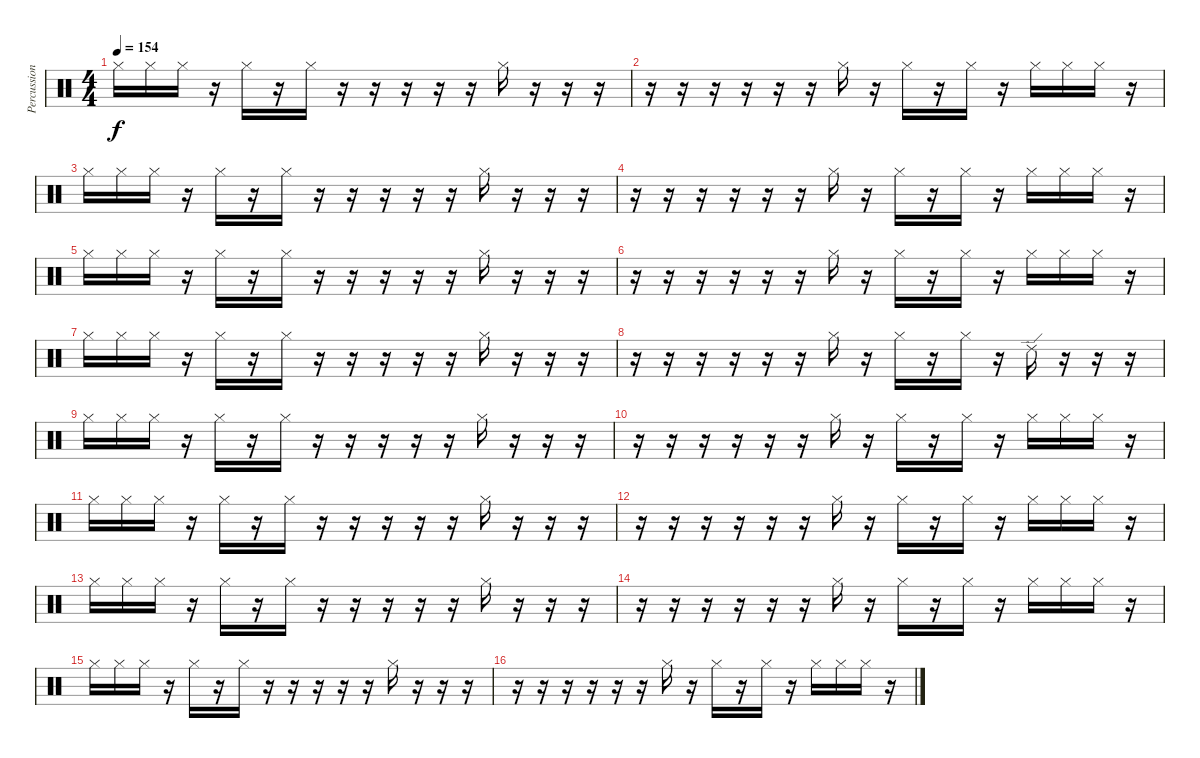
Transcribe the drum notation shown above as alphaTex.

\track ("Percussion" "Percussion") {instrument percussion}
\staff {score}
\articulation defaults
\ts (4 4)
\tempo 154
\clef neutral
\ks c "Hi-Hat (closed)".16{dy f} "Hi-Hat (closed)".16 "Hi-Hat (closed)".16
r.16 "Hi-Hat (closed)".16 r.16 "Hi-Hat (closed)".16 r.16 r.16 r.16 r.16 r.16 "Hi-Hat (closed)".16 r.16 r.16 r.16 |
r.16 r.16 r.16 r.16 r.16 r.16 "Hi-Hat (closed)".16 r.16 "Hi-Hat (closed)".16 r.16 "Hi-Hat (closed)".16 r.16 "Hi-Hat (closed)".16 "Hi-Hat (closed)".16 "Hi-Hat (closed)".16 r.16 |
"Hi-Hat (closed)".16 "Hi-Hat (closed)".16 "Hi-Hat (closed)".16 r.16 "Hi-Hat (closed)".16 r.16 "Hi-Hat (closed)".16 r.16 r.16 r.16 r.16 r.16 "Hi-Hat (closed)".16 r.16 r.16 r.16 |
r.16 r.16 r.16 r.16 r.16 r.16 "Hi-Hat (closed)".16 r.16 "Hi-Hat (closed)".16 r.16 "Hi-Hat (closed)".16 r.16 "Hi-Hat (closed)".16 "Hi-Hat (closed)".16 "Hi-Hat (closed)".16 r.16 |
"Hi-Hat (closed)".16 "Hi-Hat (closed)".16 "Hi-Hat (closed)".16 r.16 "Hi-Hat (closed)".16 r.16 "Hi-Hat (closed)".16 r.16 r.16 r.16 r.16 r.16 "Hi-Hat (closed)".16 r.16 r.16 r.16 |
r.16 r.16 r.16 r.16 r.16 r.16 "Hi-Hat (closed)".16 r.16 "Hi-Hat (closed)".16 r.16 "Hi-Hat (closed)".16 r.16 "Hi-Hat (closed)".16 "Hi-Hat (closed)".16 "Hi-Hat (closed)".16 r.16 |
"Hi-Hat (closed)".16 "Hi-Hat (closed)".16 "Hi-Hat (closed)".16 r.16 "Hi-Hat (closed)".16 r.16 "Hi-Hat (closed)".16 r.16 r.16 r.16 r.16 r.16 "Hi-Hat (closed)".16 r.16 r.16 r.16 |
r.16 r.16 r.16 r.16 r.16 r.16 "Hi-Hat (closed)".16 r.16 "Hi-Hat (closed)".16 r.16 "Hi-Hat (closed)".16 r.16 "Ride (edge) 2".16 r.16 r.16 r.16 |
"Hi-Hat (closed)".16 "Hi-Hat (closed)".16 "Hi-Hat (closed)".16 r.16 "Hi-Hat (closed)".16 r.16 "Hi-Hat (closed)".16 r.16 r.16 r.16 r.16 r.16 "Hi-Hat (closed)".16 r.16 r.16 r.16 |
r.16 r.16 r.16 r.16 r.16 r.16 "Hi-Hat (closed)".16 r.16 "Hi-Hat (closed)".16 r.16 "Hi-Hat (closed)".16 r.16 "Hi-Hat (closed)".16 "Hi-Hat (closed)".16 "Hi-Hat (closed)".16 r.16 |
"Hi-Hat (closed)".16 "Hi-Hat (closed)".16 "Hi-Hat (closed)".16 r.16 "Hi-Hat (closed)".16 r.16 "Hi-Hat (closed)".16 r.16 r.16 r.16 r.16 r.16 "Hi-Hat (closed)".16 r.16 r.16 r.16 |
r.16 r.16 r.16 r.16 r.16 r.16 "Hi-Hat (closed)".16 r.16 "Hi-Hat (closed)".16 r.16 "Hi-Hat (closed)".16 r.16 "Hi-Hat (closed)".16 "Hi-Hat (closed)".16 "Hi-Hat (closed)".16 r.16 |
"Hi-Hat (closed)".16 "Hi-Hat (closed)".16 "Hi-Hat (closed)".16 r.16 "Hi-Hat (closed)".16 r.16 "Hi-Hat (closed)".16 r.16 r.16 r.16 r.16 r.16 "Hi-Hat (closed)".16 r.16 r.16 r.16 |
r.16 r.16 r.16 r.16 r.16 r.16 "Hi-Hat (closed)".16 r.16 "Hi-Hat (closed)".16 r.16 "Hi-Hat (closed)".16 r.16 "Hi-Hat (closed)".16 "Hi-Hat (closed)".16 "Hi-Hat (closed)".16 r.16 |
"Hi-Hat (closed)".16 "Hi-Hat (closed)".16 "Hi-Hat (closed)".16 r.16 "Hi-Hat (closed)".16 r.16 "Hi-Hat (closed)".16 r.16 r.16 r.16 r.16 r.16 "Hi-Hat (closed)".16 r.16 r.16 r.16 |
r.16 r.16 r.16 r.16 r.16 r.16 "Hi-Hat (closed)".16 r.16 "Hi-Hat (closed)".16 r.16 "Hi-Hat (closed)".16 r.16 "Hi-Hat (closed)".16 "Hi-Hat (closed)".16 "Hi-Hat (closed)".16 r.16
